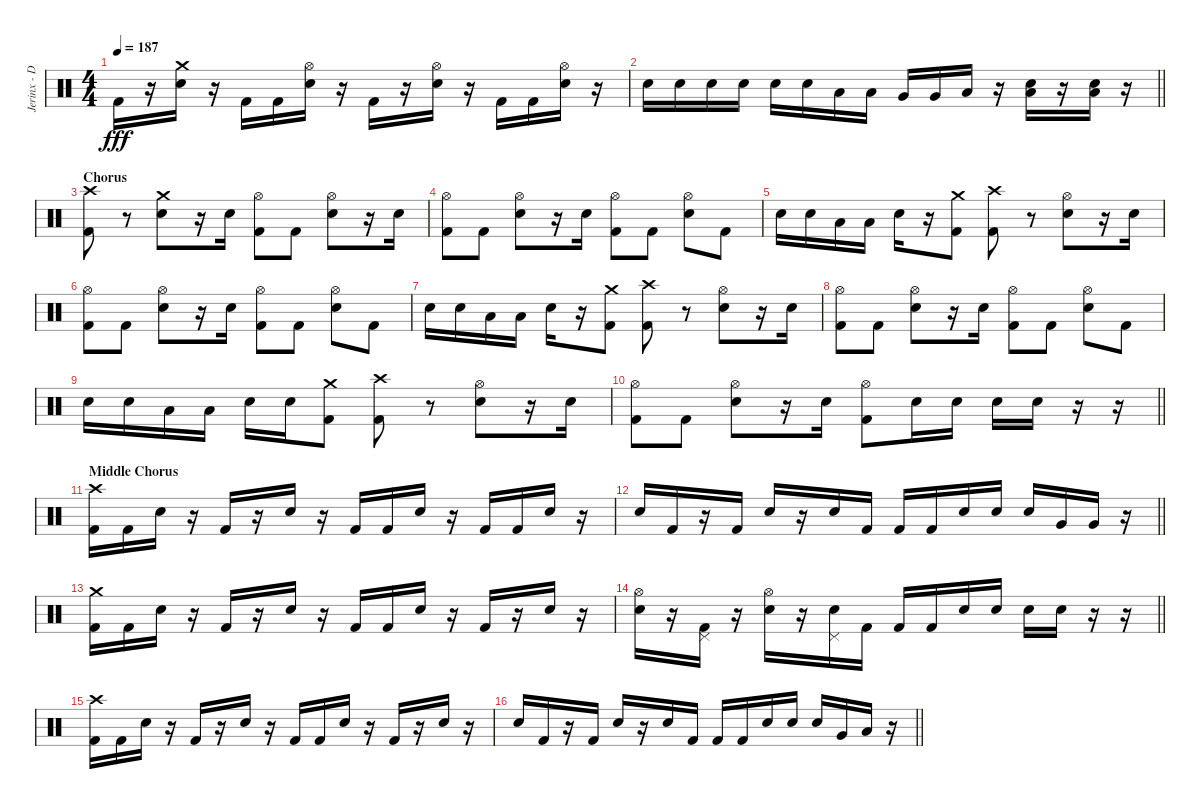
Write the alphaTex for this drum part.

\track ("Jerinx - Drum" "Jerinx - D") {instrument percussion}
\staff {score}
\articulation defaults
\ts (4 4)
\tempo 187
\clef neutral
\ks c "Kick (hit) 2".16{dy fff}
r.16 ("Snare (hit) 2" "Crash medium (hit)").16 r.16 "Kick (hit) 2".16 "Kick (hit) 2".16 ("Hi-Hat (open)" "Snare (hit) 2").16 r.16 "Kick (hit) 2".16 r.16 ("Hi-Hat (open)" "Snare (hit) 2").16 r.16 "Kick (hit) 2".16 "Kick (hit) 2".16 ("Hi-Hat (open)" "Snare (hit) 2").16 r.16 |
\barLineRight lightlight "Snare (hit) 2".16 "Snare (hit) 2".16 "Snare (hit) 2".16 "Snare (hit) 2".16 "Snare (hit) 2".16 "Snare (hit) 2".16 "Low Tom (hit)".16 "Low Tom (hit)".16 "Very Low Tom (hit)".16 "Very Low Tom (hit)".16 "Low Floor Tom (hit)".16
r.16 ("Snare (hit) 2" "Low Floor Tom (hit)").16 r.16 ("Snare (hit) 2" "Low Floor Tom (hit)").16 r.16 |
\section ("" "Chorus")
("Kick (hit) 2" "Crash high (hit)").8 r.8 ("Snare (hit) 2" "Crash medium (hit)").8 r.16 "Snare (hit) 2".16 ("Hi-Hat (open)" "Kick (hit) 2").8 "Kick (hit) 2".8 ("Hi-Hat (open)" "Snare (hit) 2").8 r.16 "Snare (hit) 2".16 |
("Hi-Hat (open)" "Kick (hit) 2").8 "Kick (hit) 2".8 ("Hi-Hat (open)" "Snare (hit) 2").8 r.16 "Snare (hit) 2".16 ("Hi-Hat (open)" "Kick (hit) 2").8 "Kick (hit) 2".8 ("Hi-Hat (open)" "Snare (hit) 2").8 "Kick (hit) 2".8 |
"Snare (hit) 2".16 "Snare (hit) 2".16 "Low Tom (hit)".16 "Low Tom (hit)".16 "Snare (hit) 2".16 r.16 ("Kick (hit) 2" "Crash medium (hit)").8 ("Kick (hit) 2" "Crash high (hit)").8 r.8 ("Hi-Hat (open)" "Snare (hit) 2").8 r.16 "Snare (hit) 2".16 |
("Hi-Hat (open)" "Kick (hit) 2").8 "Kick (hit) 2".8 ("Hi-Hat (open)" "Snare (hit) 2").8 r.16 "Snare (hit) 2".16 ("Hi-Hat (open)" "Kick (hit) 2").8 "Kick (hit) 2".8 ("Hi-Hat (open)" "Snare (hit) 2").8 "Kick (hit) 2".8 |
"Snare (hit) 2".16 "Snare (hit) 2".16 "Low Tom (hit)".16 "Low Tom (hit)".16 "Snare (hit) 2".16 r.16 ("Kick (hit) 2" "Crash medium (hit)").8 ("Kick (hit) 2" "Crash high (hit)").8 r.8 ("Hi-Hat (open)" "Snare (hit) 2").8 r.16 "Snare (hit) 2".16 |
("Hi-Hat (open)" "Kick (hit) 2").8 "Kick (hit) 2".8 ("Hi-Hat (open)" "Snare (hit) 2").8 r.16 "Snare (hit) 2".16 ("Hi-Hat (open)" "Kick (hit) 2").8 "Kick (hit) 2".8 ("Hi-Hat (open)" "Snare (hit) 2").8 "Kick (hit) 2".8 |
"Snare (hit) 2".16 "Snare (hit) 2".16 "Low Tom (hit)".16 "Low Tom (hit)".16 "Snare (hit) 2".16 "Snare (hit) 2".16 ("Kick (hit) 2" "Crash medium (hit)").8 ("Kick (hit) 2" "Crash high (hit)").8 r.8 ("Hi-Hat (open)" "Snare (hit) 2").8 r.16 "Snare (hit) 2".16 |
\barLineRight lightlight
("Hi-Hat (open)" "Kick (hit) 2").8 "Kick (hit) 2".8 ("Hi-Hat (open)" "Snare (hit) 2").8 r.16 "Snare (hit) 2".16 ("Hi-Hat (open)" "Kick (hit) 2").8 "Snare (hit) 2".16 "Snare (hit) 2".16 "Snare (hit) 2".16 "Snare (hit) 2".16 r.16 r.16 |
\section ("" "Middle Chorus")
("Kick (hit) 2" "Crash high (hit)").16 "Kick (hit) 2".16 "Snare (hit) 2".16 r.16 "Kick (hit) 2".16 r.16 "Snare (hit) 2".16 r.16 "Kick (hit) 2".16 "Kick (hit) 2".16 "Snare (hit) 2".16 r.16 "Kick (hit) 2".16 "Kick (hit) 2".16 "Snare (hit) 2".16 r.16 |
\barLineRight lightlight "Snare (hit) 2".16 "Kick (hit) 2".16
r.16 "Kick (hit) 2".16 "Snare (hit) 2".16 r.16 "Snare (hit) 2".16 "Kick (hit) 2".16 "Kick (hit) 2".16 "Kick (hit) 2".16 "Snare (hit) 2".16 "Snare (hit) 2".16 "Snare (hit) 2".16 "Very Low Tom (hit)".16 "Very Low Tom (hit)".16 r.16 |
("Kick (hit) 2" "Crash medium (hit)").16 "Kick (hit) 2".16 "Snare (hit) 2".16 r.16 "Kick (hit) 2".16 r.16 "Snare (hit) 2".16 r.16 "Kick (hit) 2".16 "Kick (hit) 2".16 "Snare (hit) 2".16 r.16 "Kick (hit) 2".16 r.16 "Snare (hit) 2".16 r.16 |
\barLineRight lightlight
("Hi-Hat (open)" "Snare (hit) 2").16 r.16 ("Pedal Hi-Hat (hit)" "Kick (hit) 2").16 r.16 ("Hi-Hat (open)" "Snare (hit) 2").16 r.16 ("Pedal Hi-Hat (hit)" "Snare (hit) 2").16 "Kick (hit) 2".16 "Kick (hit) 2".16 "Kick (hit) 2".16 "Snare (hit) 2".16 "Snare (hit) 2".16 "Snare (hit) 2".16 "Snare (hit) 2".16 r.16 r.16 |
("Kick (hit) 2" "Crash high (hit)").16 "Kick (hit) 2".16 "Snare (hit) 2".16 r.16 "Kick (hit) 2".16 r.16 "Snare (hit) 2".16 r.16 "Kick (hit) 2".16 "Kick (hit) 2".16 "Snare (hit) 2".16 r.16 "Kick (hit) 2".16 r.16 "Snare (hit) 2".16 r.16 |
\barLineRight lightlight "Snare (hit) 2".16 "Kick (hit) 2".16
r.16 "Kick (hit) 2".16 "Snare (hit) 2".16 r.16 "Snare (hit) 2".16 "Kick (hit) 2".16 "Kick (hit) 2".16 "Kick (hit) 2".16 "Snare (hit) 2".16 "Snare (hit) 2".16 "Snare (hit) 2".16 "Very Low Tom (hit)".16 "Low Floor Tom (hit)".16 r.16
